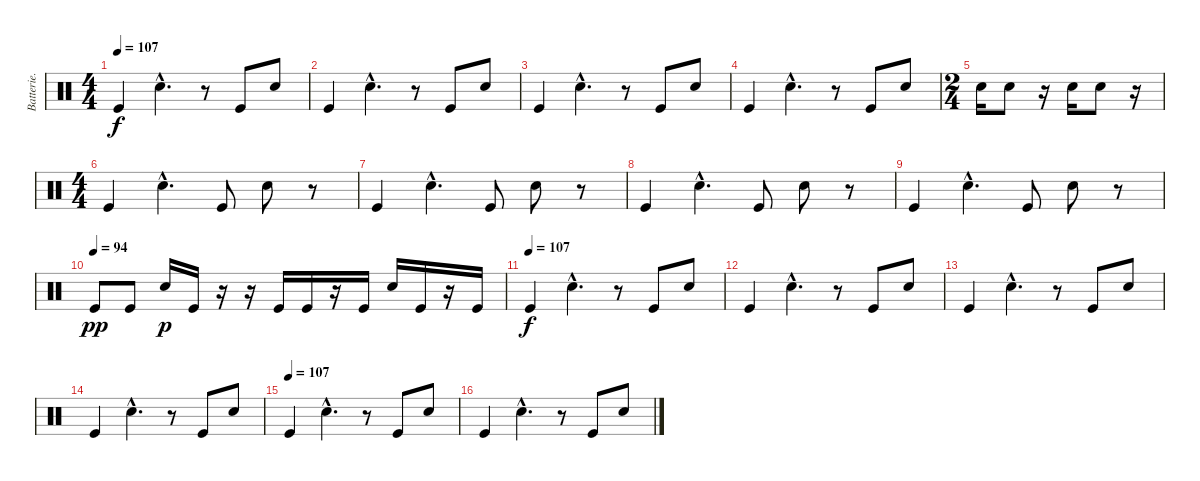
\track ("Batterie." "Batterie.") {instrument percussion}
\staff {score}
\articulation defaults
\ts (4 4)
\tempo 107
\clef neutral
\ks c "Kick (hit)".4{dy f} "Electric Snare (hit)"{hac}.4{d}
r.8 "Kick (hit)".8 "Electric Snare (hit)".8 |
"Kick (hit)".4 "Electric Snare (hit)"{hac}.4{d} r.8 "Kick (hit)".8 "Electric Snare (hit)".8 |
"Kick (hit)".4 "Electric Snare (hit)"{hac}.4{d} r.8 "Kick (hit)".8 "Electric Snare (hit)".8 |
"Kick (hit)".4 "Electric Snare (hit)"{hac}.4{d} r.8 "Kick (hit)".8 "Electric Snare (hit)".8 |
\ts (2 4)
"Electric Snare (hit)".16 "Electric Snare (hit)".8 r.16 "Electric Snare (hit)".16 "Electric Snare (hit)".8 r.16 |
\ts (4 4)
"Kick (hit)".4 "Electric Snare (hit)"{hac}.4{d} "Kick (hit)".8 "Electric Snare (hit)".8 r.8 |
"Kick (hit)".4 "Electric Snare (hit)"{hac}.4{d} "Kick (hit)".8 "Electric Snare (hit)".8 r.8 |
"Kick (hit)".4 "Electric Snare (hit)"{hac}.4{d} "Kick (hit)".8 "Electric Snare (hit)".8 r.8 |
"Kick (hit)".4 "Electric Snare (hit)"{hac}.4{d} "Kick (hit)".8 "Electric Snare (hit)".8 r.8 |
\tempo (94)
"Kick (hit)".8{dy pp} "Kick (hit)".8 "Electric Snare (hit)".16{dy p} "Kick (hit)".16 r.16 r.16 "Kick (hit)".16 "Kick (hit)".16 r.16 "Kick (hit)".16 "Electric Snare (hit)".16 "Kick (hit)".16 r.16 "Kick (hit)".16 |
\tempo (107)
"Kick (hit)".4{dy f} "Electric Snare (hit)"{hac}.4{d} r.8 "Kick (hit)".8 "Electric Snare (hit)".8 |
"Kick (hit)".4 "Electric Snare (hit)"{hac}.4{d} r.8 "Kick (hit)".8 "Electric Snare (hit)".8 |
"Kick (hit)".4 "Electric Snare (hit)"{hac}.4{d} r.8 "Kick (hit)".8 "Electric Snare (hit)".8 |
"Kick (hit)".4 "Electric Snare (hit)"{hac}.4{d} r.8 "Kick (hit)".8 "Electric Snare (hit)".8 |
\tempo (107)
"Kick (hit)".4 "Electric Snare (hit)"{hac}.4{d} r.8 "Kick (hit)".8 "Electric Snare (hit)".8 |
"Kick (hit)".4 "Electric Snare (hit)"{hac}.4{d} r.8 "Kick (hit)".8 "Electric Snare (hit)".8
